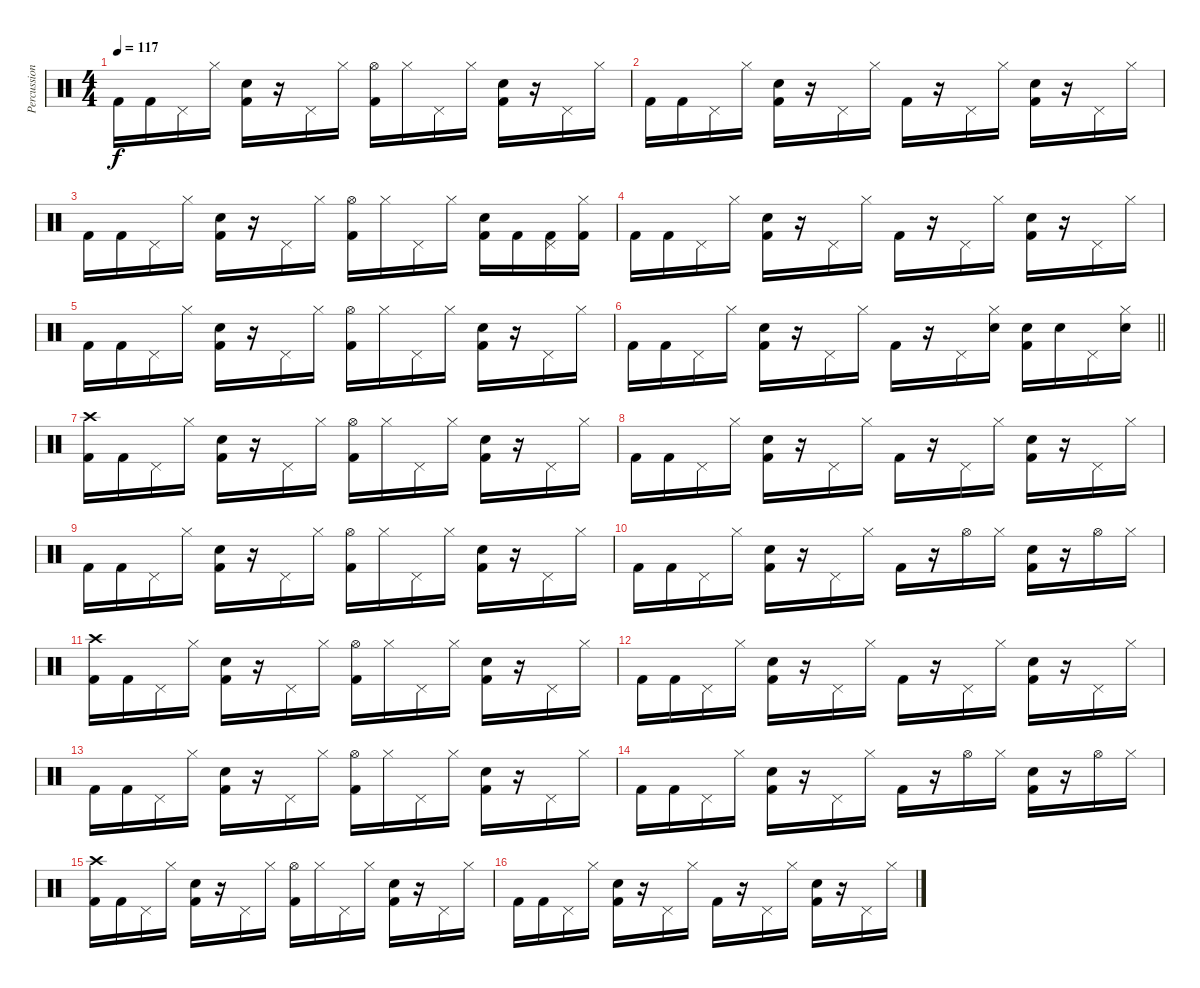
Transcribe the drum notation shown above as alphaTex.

\track ("Percussion" "Percussion") {instrument percussion}
\staff {score}
\articulation defaults
\ts (4 4)
\tempo 117
\clef neutral
\ks c "Kick (hit) 2".16{dy f} "Kick (hit) 2".16 "Pedal Hi-Hat (hit)".16 "Hi-Hat (closed)".16
("Snare (hit) 2" "Kick (hit) 2").16 r.16 "Pedal Hi-Hat (hit)".16 "Hi-Hat (closed)".16 ("Hi-Hat (open)" "Kick (hit) 2").16 "Hi-Hat (closed)".16 "Pedal Hi-Hat (hit)".16 "Hi-Hat (closed)".16 ("Snare (hit) 2" "Kick (hit) 2").16 r.16 "Pedal Hi-Hat (hit)".16 "Hi-Hat (closed)".16 |
"Kick (hit) 2".16 "Kick (hit) 2".16 "Pedal Hi-Hat (hit)".16 "Hi-Hat (closed)".16 ("Snare (hit) 2" "Kick (hit) 2").16 r.16 "Pedal Hi-Hat (hit)".16 "Hi-Hat (closed)".16 "Kick (hit) 2".16 r.16 "Pedal Hi-Hat (hit)".16 "Hi-Hat (closed)".16 ("Snare (hit) 2" "Kick (hit) 2").16 r.16 "Pedal Hi-Hat (hit)".16 "Hi-Hat (closed)".16 |
"Kick (hit) 2".16 "Kick (hit) 2".16 "Pedal Hi-Hat (hit)".16 "Hi-Hat (closed)".16 ("Snare (hit) 2" "Kick (hit) 2").16 r.16 "Pedal Hi-Hat (hit)".16 "Hi-Hat (closed)".16 ("Hi-Hat (open)" "Kick (hit) 2").16 "Hi-Hat (closed)".16 "Pedal Hi-Hat (hit)".16 "Hi-Hat (closed)".16 ("Snare (hit) 2" "Kick (hit) 2").16 "Kick (hit) 2".16 ("Pedal Hi-Hat (hit)" "Kick (hit) 2").16 ("Hi-Hat (closed)" "Kick (hit) 2").16 |
"Kick (hit) 2".16 "Kick (hit) 2".16 "Pedal Hi-Hat (hit)".16 "Hi-Hat (closed)".16 ("Snare (hit) 2" "Kick (hit) 2").16 r.16 "Pedal Hi-Hat (hit)".16 "Hi-Hat (closed)".16 "Kick (hit) 2".16 r.16 "Pedal Hi-Hat (hit)".16 "Hi-Hat (closed)".16 ("Snare (hit) 2" "Kick (hit) 2").16 r.16 "Pedal Hi-Hat (hit)".16 "Hi-Hat (closed)".16 |
"Kick (hit) 2".16 "Kick (hit) 2".16 "Pedal Hi-Hat (hit)".16 "Hi-Hat (closed)".16 ("Snare (hit) 2" "Kick (hit) 2").16 r.16 "Pedal Hi-Hat (hit)".16 "Hi-Hat (closed)".16 ("Hi-Hat (open)" "Kick (hit) 2").16 "Hi-Hat (closed)".16 "Pedal Hi-Hat (hit)".16 "Hi-Hat (closed)".16 ("Snare (hit) 2" "Kick (hit) 2").16 r.16 "Pedal Hi-Hat (hit)".16 "Hi-Hat (closed)".16 |
\barLineRight lightlight "Kick (hit) 2".16 "Kick (hit) 2".16 "Pedal Hi-Hat (hit)".16 "Hi-Hat (closed)".16
("Snare (hit) 2" "Kick (hit) 2").16 r.16 "Pedal Hi-Hat (hit)".16 "Hi-Hat (closed)".16 "Kick (hit) 2".16 r.16 "Pedal Hi-Hat (hit)".16 ("Hi-Hat (closed)" "Hand Clap (hit)").16 ("Snare (hit) 2" "Kick (hit) 2").16 "Hand Clap (hit)".16 "Pedal Hi-Hat (hit)".16 ("Hi-Hat (closed)" "Hand Clap (hit)").16 |
("Crash high (hit)" "Kick (hit) 2").16 "Kick (hit) 2".16 "Pedal Hi-Hat (hit)".16 "Hi-Hat (closed)".16 ("Snare (hit) 2" "Kick (hit) 2").16 r.16 "Pedal Hi-Hat (hit)".16 "Hi-Hat (closed)".16 ("Hi-Hat (open)" "Kick (hit) 2").16 "Hi-Hat (closed)".16 "Pedal Hi-Hat (hit)".16 "Hi-Hat (closed)".16 ("Snare (hit) 2" "Kick (hit) 2").16 r.16 "Pedal Hi-Hat (hit)".16 "Hi-Hat (closed)".16 |
"Kick (hit) 2".16 "Kick (hit) 2".16 "Pedal Hi-Hat (hit)".16 "Hi-Hat (closed)".16 ("Snare (hit) 2" "Kick (hit) 2").16 r.16 "Pedal Hi-Hat (hit)".16 "Hi-Hat (closed)".16 "Kick (hit) 2".16 r.16 "Pedal Hi-Hat (hit)".16 "Hi-Hat (closed)".16 ("Snare (hit) 2" "Kick (hit) 2").16 r.16 "Pedal Hi-Hat (hit)".16 "Hi-Hat (closed)".16 |
"Kick (hit) 2".16 "Kick (hit) 2".16 "Pedal Hi-Hat (hit)".16 "Hi-Hat (closed)".16 ("Snare (hit) 2" "Kick (hit) 2").16 r.16 "Pedal Hi-Hat (hit)".16 "Hi-Hat (closed)".16 ("Hi-Hat (open)" "Kick (hit) 2").16 "Hi-Hat (closed)".16 "Pedal Hi-Hat (hit)".16 "Hi-Hat (closed)".16 ("Snare (hit) 2" "Kick (hit) 2").16 r.16 "Pedal Hi-Hat (hit)".16 "Hi-Hat (closed)".16 |
"Kick (hit) 2".16 "Kick (hit) 2".16 "Pedal Hi-Hat (hit)".16 "Hi-Hat (closed)".16 ("Snare (hit) 2" "Kick (hit) 2").16 r.16 "Pedal Hi-Hat (hit)".16 "Hi-Hat (closed)".16 "Kick (hit) 2".16 r.16 "Hi-Hat (open)".16 "Hi-Hat (closed)".16 ("Snare (hit) 2" "Kick (hit) 2").16 r.16 "Hi-Hat (open)".16 "Hi-Hat (closed)".16 |
("Crash high (hit)" "Kick (hit) 2").16 "Kick (hit) 2".16 "Pedal Hi-Hat (hit)".16 "Hi-Hat (closed)".16 ("Snare (hit) 2" "Kick (hit) 2").16 r.16 "Pedal Hi-Hat (hit)".16 "Hi-Hat (closed)".16 ("Hi-Hat (open)" "Kick (hit) 2").16 "Hi-Hat (closed)".16 "Pedal Hi-Hat (hit)".16 "Hi-Hat (closed)".16 ("Snare (hit) 2" "Kick (hit) 2").16 r.16 "Pedal Hi-Hat (hit)".16 "Hi-Hat (closed)".16 |
"Kick (hit) 2".16 "Kick (hit) 2".16 "Pedal Hi-Hat (hit)".16 "Hi-Hat (closed)".16 ("Snare (hit) 2" "Kick (hit) 2").16 r.16 "Pedal Hi-Hat (hit)".16 "Hi-Hat (closed)".16 "Kick (hit) 2".16 r.16 "Pedal Hi-Hat (hit)".16 "Hi-Hat (closed)".16 ("Snare (hit) 2" "Kick (hit) 2").16 r.16 "Pedal Hi-Hat (hit)".16 "Hi-Hat (closed)".16 |
"Kick (hit) 2".16 "Kick (hit) 2".16 "Pedal Hi-Hat (hit)".16 "Hi-Hat (closed)".16 ("Snare (hit) 2" "Kick (hit) 2").16 r.16 "Pedal Hi-Hat (hit)".16 "Hi-Hat (closed)".16 ("Hi-Hat (open)" "Kick (hit) 2").16 "Hi-Hat (closed)".16 "Pedal Hi-Hat (hit)".16 "Hi-Hat (closed)".16 ("Snare (hit) 2" "Kick (hit) 2").16 r.16 "Pedal Hi-Hat (hit)".16 "Hi-Hat (closed)".16 |
"Kick (hit) 2".16 "Kick (hit) 2".16 "Pedal Hi-Hat (hit)".16 "Hi-Hat (closed)".16 ("Snare (hit) 2" "Kick (hit) 2").16 r.16 "Pedal Hi-Hat (hit)".16 "Hi-Hat (closed)".16 "Kick (hit) 2".16 r.16 "Hi-Hat (open)".16 "Hi-Hat (closed)".16 ("Snare (hit) 2" "Kick (hit) 2").16 r.16 "Hi-Hat (open)".16 "Hi-Hat (closed)".16 |
("Crash high (hit)" "Kick (hit) 2").16 "Kick (hit) 2".16 "Pedal Hi-Hat (hit)".16 "Hi-Hat (closed)".16 ("Snare (hit) 2" "Kick (hit) 2").16 r.16 "Pedal Hi-Hat (hit)".16 "Hi-Hat (closed)".16 ("Hi-Hat (open)" "Kick (hit) 2").16 "Hi-Hat (closed)".16 "Pedal Hi-Hat (hit)".16 "Hi-Hat (closed)".16 ("Snare (hit) 2" "Kick (hit) 2").16 r.16 "Pedal Hi-Hat (hit)".16 "Hi-Hat (closed)".16 |
"Kick (hit) 2".16 "Kick (hit) 2".16 "Pedal Hi-Hat (hit)".16 "Hi-Hat (closed)".16 ("Snare (hit) 2" "Kick (hit) 2").16 r.16 "Pedal Hi-Hat (hit)".16 "Hi-Hat (closed)".16 "Kick (hit) 2".16 r.16 "Pedal Hi-Hat (hit)".16 "Hi-Hat (closed)".16 ("Snare (hit) 2" "Kick (hit) 2").16 r.16 "Pedal Hi-Hat (hit)".16 "Hi-Hat (closed)".16
